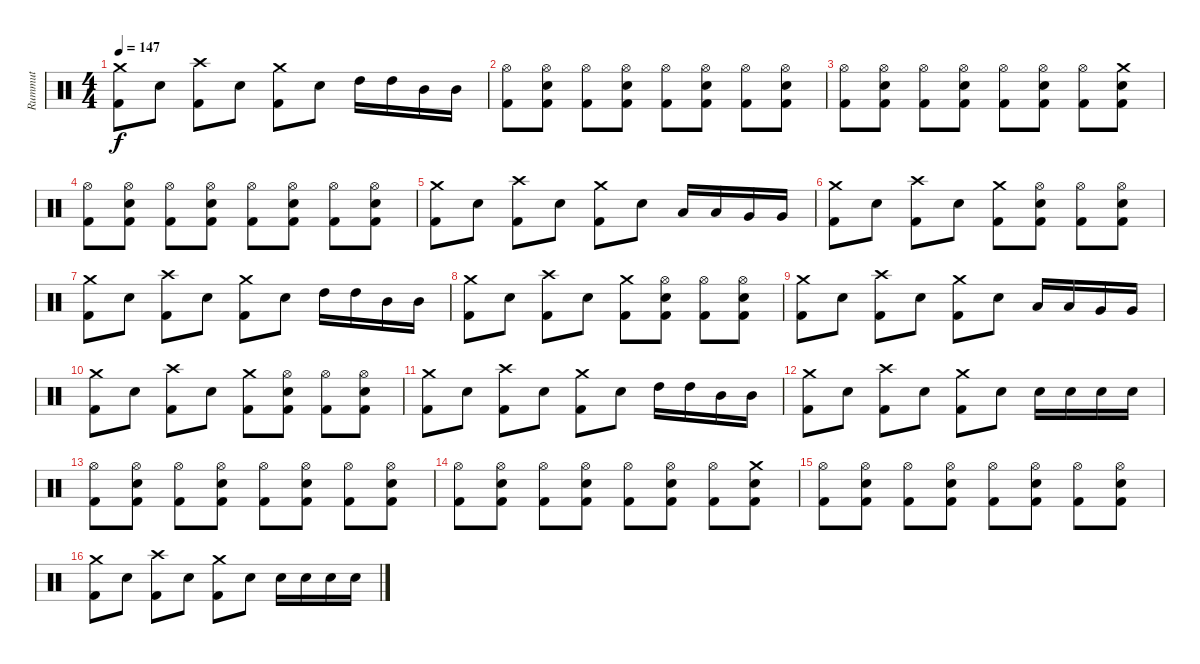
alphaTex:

\track ("Rummut" "Rummut") {instrument percussion}
\staff {score}
\articulation defaults
\ts (4 4)
\tempo 147
\clef neutral
\ks c
("Crash medium (hit)" "Kick (hit) 2").8{dy f} "Electric Snare (hit)".8 ("Crash high (hit)" "Kick (hit) 2").8 "Electric Snare (hit)".8 ("Crash medium (hit)" "Kick (hit) 2").8 "Electric Snare (hit)".8 "High Tom (hit)".16 "High Tom (hit)".16 "Mid Tom (hit)".16 "Mid Tom (hit)".16 |
("Hi-Hat (open)" "Kick (hit) 2").8 ("Hi-Hat (open)" "Electric Snare (hit)" "Kick (hit) 2").8 ("Hi-Hat (open)" "Kick (hit) 2").8 ("Hi-Hat (open)" "Electric Snare (hit)" "Kick (hit) 2").8 ("Hi-Hat (open)" "Kick (hit) 2").8 ("Hi-Hat (open)" "Electric Snare (hit)" "Kick (hit) 2").8 ("Hi-Hat (open)" "Kick (hit) 2").8 ("Hi-Hat (open)" "Electric Snare (hit)" "Kick (hit) 2").8 |
("Hi-Hat (open)" "Kick (hit) 2").8 ("Hi-Hat (open)" "Electric Snare (hit)" "Kick (hit) 2").8 ("Hi-Hat (open)" "Kick (hit) 2").8 ("Hi-Hat (open)" "Electric Snare (hit)" "Kick (hit) 2").8 ("Hi-Hat (open)" "Kick (hit) 2").8 ("Hi-Hat (open)" "Electric Snare (hit)" "Kick (hit) 2").8 ("Hi-Hat (open)" "Kick (hit) 2").8 ("Crash medium (hit)" "Electric Snare (hit)" "Kick (hit) 2").8 |
("Hi-Hat (open)" "Kick (hit) 2").8 ("Hi-Hat (open)" "Electric Snare (hit)" "Kick (hit) 2").8 ("Hi-Hat (open)" "Kick (hit) 2").8 ("Hi-Hat (open)" "Electric Snare (hit)" "Kick (hit) 2").8 ("Hi-Hat (open)" "Kick (hit) 2").8 ("Hi-Hat (open)" "Electric Snare (hit)" "Kick (hit) 2").8 ("Hi-Hat (open)" "Kick (hit) 2").8 ("Hi-Hat (open)" "Electric Snare (hit)" "Kick (hit) 2").8 |
("Crash medium (hit)" "Kick (hit) 2").8 "Electric Snare (hit)".8 ("Crash high (hit)" "Kick (hit) 2").8 "Electric Snare (hit)".8 ("Crash medium (hit)" "Kick (hit) 2").8 "Electric Snare (hit)".8 "Low Tom (hit)".16 "Low Tom (hit)".16 "Very Low Tom (hit)".16 "Very Low Tom (hit)".16 |
("Crash medium (hit)" "Kick (hit) 2").8 "Electric Snare (hit)".8 ("Crash high (hit)" "Kick (hit) 2").8 "Electric Snare (hit)".8 ("Crash medium (hit)" "Kick (hit) 2").8 ("Hi-Hat (open)" "Electric Snare (hit)" "Kick (hit) 2").8 ("Hi-Hat (open)" "Kick (hit) 2").8 ("Hi-Hat (open)" "Electric Snare (hit)" "Kick (hit) 2").8 |
("Crash medium (hit)" "Kick (hit) 2").8 "Electric Snare (hit)".8 ("Crash high (hit)" "Kick (hit) 2").8 "Electric Snare (hit)".8 ("Crash medium (hit)" "Kick (hit) 2").8 "Electric Snare (hit)".8 "High Tom (hit)".16 "High Tom (hit)".16 "Mid Tom (hit)".16 "Mid Tom (hit)".16 |
("Crash medium (hit)" "Kick (hit) 2").8 "Electric Snare (hit)".8 ("Crash high (hit)" "Kick (hit) 2").8 "Electric Snare (hit)".8 ("Crash medium (hit)" "Kick (hit) 2").8 ("Hi-Hat (open)" "Electric Snare (hit)" "Kick (hit) 2").8 ("Hi-Hat (open)" "Kick (hit) 2").8 ("Hi-Hat (open)" "Electric Snare (hit)" "Kick (hit) 2").8 |
("Crash medium (hit)" "Kick (hit) 2").8 "Electric Snare (hit)".8 ("Crash high (hit)" "Kick (hit) 2").8 "Electric Snare (hit)".8 ("Crash medium (hit)" "Kick (hit) 2").8 "Electric Snare (hit)".8 "Low Tom (hit)".16 "Low Tom (hit)".16 "Very Low Tom (hit)".16 "Very Low Tom (hit)".16 |
("Crash medium (hit)" "Kick (hit) 2").8 "Electric Snare (hit)".8 ("Crash high (hit)" "Kick (hit) 2").8 "Electric Snare (hit)".8 ("Crash medium (hit)" "Kick (hit) 2").8 ("Hi-Hat (open)" "Electric Snare (hit)" "Kick (hit) 2").8 ("Hi-Hat (open)" "Kick (hit) 2").8 ("Hi-Hat (open)" "Electric Snare (hit)" "Kick (hit) 2").8 |
("Crash medium (hit)" "Kick (hit) 2").8 "Electric Snare (hit)".8 ("Crash high (hit)" "Kick (hit) 2").8 "Electric Snare (hit)".8 ("Crash medium (hit)" "Kick (hit) 2").8 "Electric Snare (hit)".8 "High Tom (hit)".16 "High Tom (hit)".16 "Mid Tom (hit)".16 "Mid Tom (hit)".16 |
("Crash medium (hit)" "Kick (hit) 2").8 "Electric Snare (hit)".8 ("Crash high (hit)" "Kick (hit) 2").8 "Electric Snare (hit)".8 ("Crash medium (hit)" "Kick (hit) 2").8 "Electric Snare (hit)".8 "Electric Snare (hit)".16 "Electric Snare (hit)".16 "Electric Snare (hit)".16 "Electric Snare (hit)".16 |
("Hi-Hat (open)" "Kick (hit) 2").8 ("Hi-Hat (open)" "Electric Snare (hit)" "Kick (hit) 2").8 ("Hi-Hat (open)" "Kick (hit) 2").8 ("Hi-Hat (open)" "Electric Snare (hit)" "Kick (hit) 2").8 ("Hi-Hat (open)" "Kick (hit) 2").8 ("Hi-Hat (open)" "Electric Snare (hit)" "Kick (hit) 2").8 ("Hi-Hat (open)" "Kick (hit) 2").8 ("Hi-Hat (open)" "Electric Snare (hit)" "Kick (hit) 2").8 |
("Hi-Hat (open)" "Kick (hit) 2").8 ("Hi-Hat (open)" "Electric Snare (hit)" "Kick (hit) 2").8 ("Hi-Hat (open)" "Kick (hit) 2").8 ("Hi-Hat (open)" "Electric Snare (hit)" "Kick (hit) 2").8 ("Hi-Hat (open)" "Kick (hit) 2").8 ("Hi-Hat (open)" "Electric Snare (hit)" "Kick (hit) 2").8 ("Hi-Hat (open)" "Kick (hit) 2").8 ("Crash medium (hit)" "Electric Snare (hit)" "Kick (hit) 2").8 |
("Hi-Hat (open)" "Kick (hit) 2").8 ("Hi-Hat (open)" "Electric Snare (hit)" "Kick (hit) 2").8 ("Hi-Hat (open)" "Kick (hit) 2").8 ("Hi-Hat (open)" "Electric Snare (hit)" "Kick (hit) 2").8 ("Hi-Hat (open)" "Kick (hit) 2").8 ("Hi-Hat (open)" "Electric Snare (hit)" "Kick (hit) 2").8 ("Hi-Hat (open)" "Kick (hit) 2").8 ("Hi-Hat (open)" "Electric Snare (hit)" "Kick (hit) 2").8 |
("Crash medium (hit)" "Kick (hit) 2").8 "Electric Snare (hit)".8 ("Crash high (hit)" "Kick (hit) 2").8 "Electric Snare (hit)".8 ("Crash medium (hit)" "Kick (hit) 2").8 "Electric Snare (hit)".8 "Electric Snare (hit)".16 "Electric Snare (hit)".16 "Electric Snare (hit)".16 "Electric Snare (hit)".16
